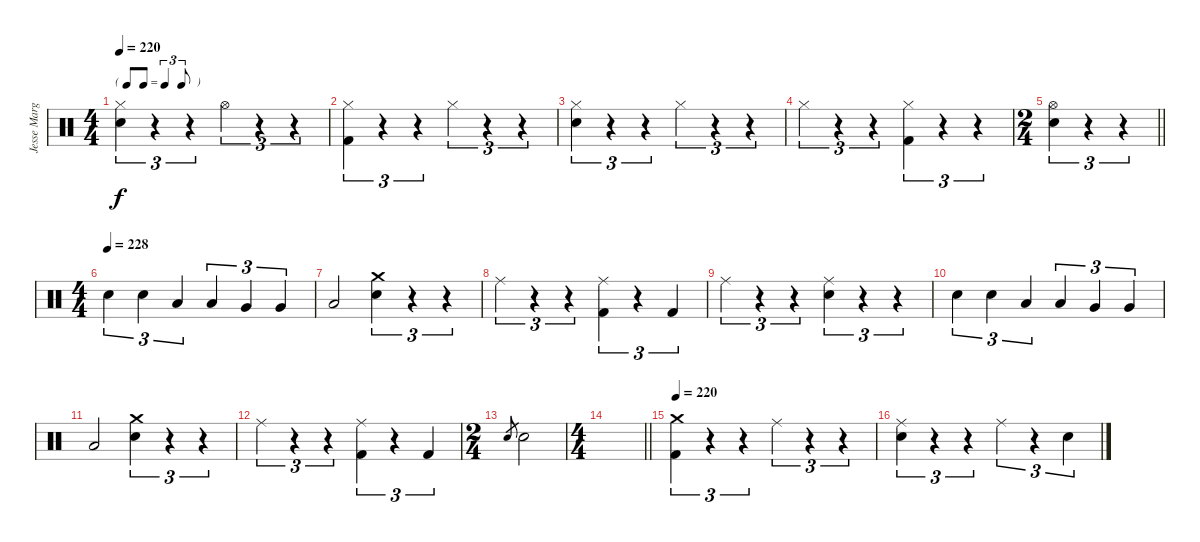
\track ("Jesse Margera" "Jesse Marg") {instrument percussion}
\staff {score}
\articulation defaults
\ts (4 4)
\tf triplet8th
\tempo 220
\clef neutral
\ks c
("Hi-Hat (closed)" "Electric Snare (hit)").4{tu (3 2) dy f} r.4{tu (3 2)} r.4{tu (3 2)} "Hi-Hat (open)".4{tu (3 2)} r.4{tu (3 2)} r.4{tu (3 2)} |
("Hi-Hat (closed)" "Kick (hit) 2").4{tu (3 2)} r.4{tu (3 2)} r.4{tu (3 2)} "Hi-Hat (closed)".4{tu (3 2)} r.4{tu (3 2)} r.4{tu (3 2)} |
("Hi-Hat (closed)" "Electric Snare (hit)").4{tu (3 2)} r.4{tu (3 2)} r.4{tu (3 2)} "Hi-Hat (closed)".4{tu (3 2)} r.4{tu (3 2)} r.4{tu (3 2)} |
"Hi-Hat (closed)".4{tu (3 2)} r.4{tu (3 2)} r.4{tu (3 2)} ("Hi-Hat (closed)" "Kick (hit) 2").4{tu (3 2)} r.4{tu (3 2)} r.4{tu (3 2)} |
\ts (2 4)
\barLineRight lightlight
("Hi-Hat (open)" "Electric Snare (hit)").4{tu (3 2)} r.4{tu (3 2)} r.4{tu (3 2)} |
\ts (4 4)
\section ("" "")
\tempo (228)
"Electric Snare (hit)".4{tu (3 2)} "Electric Snare (hit)".4{tu (3 2)} "Low Tom (hit)".4{tu (3 2)} "Low Tom (hit)".4{tu (3 2)} "Very Low Tom (hit)".4{tu (3 2)} "Very Low Tom (hit)".4{tu (3 2)} |
"Low Floor Tom (hit)".2 ("Crash medium (hit)" "Electric Snare (hit)").4{tu (3 2)} r.4{tu (3 2)} r.4{tu (3 2)} |
"Ride (middle)".4{tu (3 2)} r.4{tu (3 2)} r.4{tu (3 2)} ("Ride (middle)" "Kick (hit) 2").4{tu (3 2)} r.4{tu (3 2)} "Kick (hit) 2".4{tu (3 2)} |
"Ride (middle)".4{tu (3 2)} r.4{tu (3 2)} r.4{tu (3 2)} ("Ride (middle)" "Electric Snare (hit)").4{tu (3 2)} r.4{tu (3 2)} r.4{tu (3 2)} |
"Electric Snare (hit)".4{tu (3 2)} "Electric Snare (hit)".4{tu (3 2)} "Low Tom (hit)".4{tu (3 2)} "Low Tom (hit)".4{tu (3 2)} "Very Low Tom (hit)".4{tu (3 2)} "Very Low Tom (hit)".4{tu (3 2)} |
"Low Floor Tom (hit)".2 ("Crash medium (hit)" "Electric Snare (hit)").4{tu (3 2)} r.4{tu (3 2)} r.4{tu (3 2)} |
"Ride (middle)".4{tu (3 2)} r.4{tu (3 2)} r.4{tu (3 2)} ("Ride (middle)" "Kick (hit) 2").4{tu (3 2)} r.4{tu (3 2)} "Kick (hit) 2".4{tu (3 2)} |
\ts (2 4)
"Electric Snare (hit)".8{gr} "Electric Snare (hit)".2 |
\ts (4 4)
\barLineRight lightlight
|
\section ("" "")
\tempo 220
("Crash medium (hit)" "Kick (hit) 2").4{tu (3 2)} r.4{tu (3 2)} r.4{tu (3 2)} "Ride (middle)".4{tu (3 2)} r.4{tu (3 2)} r.4{tu (3 2)} |
("Ride (middle)" "Electric Snare (hit)").4{tu (3 2)} r.4{tu (3 2)} r.4{tu (3 2)} "Ride (middle)".4{tu (3 2)} r.4{tu (3 2)} "Electric Snare (hit)".4{tu (3 2)}
